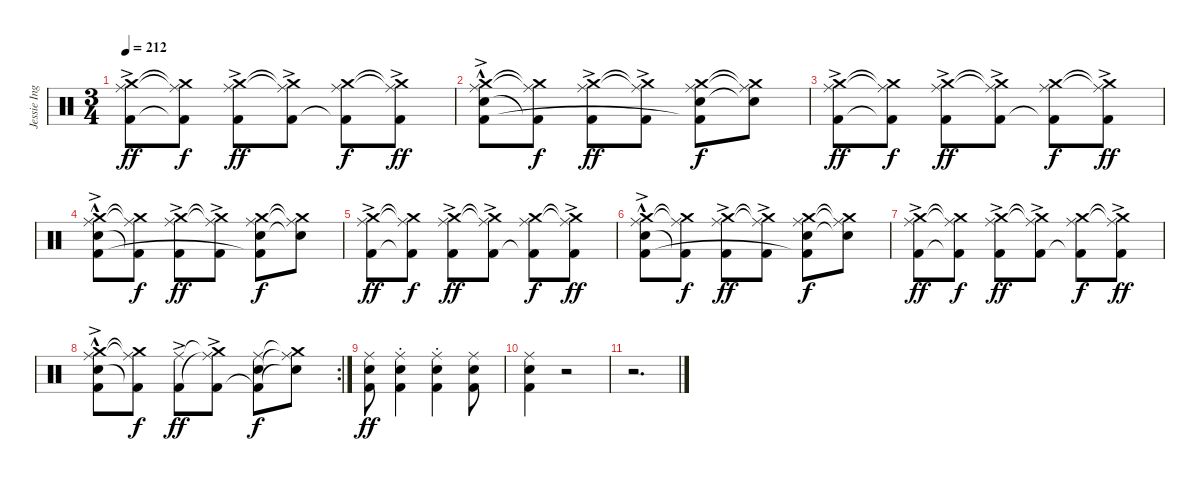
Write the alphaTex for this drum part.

\track ("Jessie Ingelevics" "Jessie Ing") {instrument percussion}
\staff {score}
\articulation defaults
\ts (3 4)
\tempo 212
\clef neutral
\ks c
("Crash medium (hit)" "Ride (middle)" "Kick (hit) 2"{ac}).8{dy ff} ("Crash medium (hit)"{t} "Ride (middle)"{t} "Kick (hit) 2"{t}).8{dy f} ("Crash medium (hit)" "Ride (middle)" "Kick (hit) 2"{ac}).8{dy ff} ("Crash medium (hit)"{t} "Ride (middle)"{t} "Kick (hit) 2"{ac}).8 ("Crash medium (hit)" "Ride (middle)" "Kick (hit) 2"{t}).8{dy f} ("Crash medium (hit)"{t} "Ride (middle)"{t} "Kick (hit) 2"{ac}).8{dy ff} |
("Crash medium (hit)" "Ride (middle)" "Electric Snare (hit)"{hac} "Kick (hit) 2"{ac}).8 ("Crash medium (hit)"{t} "Ride (middle)"{t} "Kick (hit) 2"{t}).8{dy f} ("Crash medium (hit)" "Ride (middle)" "Kick (hit) 2"{ac}).8{dy ff} ("Crash medium (hit)"{t} "Ride (middle)"{t} "Kick (hit) 2"{ac}).8 ("Crash medium (hit)" "Ride (middle)" "Electric Snare (hit)" "Kick (hit) 2"{t}).8{dy f} ("Crash medium (hit)"{t} "Ride (middle)"{t} "Electric Snare (hit)"{t}).8 |
("Crash medium (hit)" "Ride (middle)" "Kick (hit) 2"{ac}).8{dy ff} ("Crash medium (hit)"{t} "Ride (middle)"{t} "Kick (hit) 2"{t}).8{dy f} ("Crash medium (hit)" "Ride (middle)" "Kick (hit) 2"{ac}).8{dy ff} ("Crash medium (hit)"{t} "Ride (middle)"{t} "Kick (hit) 2"{ac}).8 ("Crash medium (hit)" "Ride (middle)" "Kick (hit) 2"{t}).8{dy f} ("Crash medium (hit)"{t} "Ride (middle)"{t} "Kick (hit) 2"{ac}).8{dy ff} |
("Crash medium (hit)" "Ride (middle)" "Electric Snare (hit)"{hac} "Kick (hit) 2"{ac}).8 ("Crash medium (hit)"{t} "Ride (middle)"{t} "Kick (hit) 2"{t}).8{dy f} ("Crash medium (hit)" "Ride (middle)" "Kick (hit) 2"{ac}).8{dy ff} ("Crash medium (hit)"{t} "Ride (middle)"{t} "Kick (hit) 2"{ac}).8 ("Crash medium (hit)" "Ride (middle)" "Electric Snare (hit)" "Kick (hit) 2"{t}).8{dy f} ("Crash medium (hit)"{t} "Ride (middle)"{t} "Electric Snare (hit)"{t}).8 |
("Crash medium (hit)" "Ride (middle)" "Kick (hit) 2"{ac}).8{dy ff} ("Crash medium (hit)"{t} "Ride (middle)"{t} "Kick (hit) 2"{t}).8{dy f} ("Crash medium (hit)" "Ride (middle)" "Kick (hit) 2"{ac}).8{dy ff} ("Crash medium (hit)"{t} "Ride (middle)"{t} "Kick (hit) 2"{ac}).8 ("Crash medium (hit)" "Ride (middle)" "Kick (hit) 2"{t}).8{dy f} ("Crash medium (hit)"{t} "Ride (middle)"{t} "Kick (hit) 2"{ac}).8{dy ff} |
("Crash medium (hit)" "Ride (middle)" "Electric Snare (hit)"{hac} "Kick (hit) 2"{ac}).8 ("Crash medium (hit)"{t} "Ride (middle)"{t} "Kick (hit) 2"{t}).8{dy f} ("Crash medium (hit)" "Ride (middle)" "Kick (hit) 2"{ac}).8{dy ff} ("Crash medium (hit)"{t} "Ride (middle)"{t} "Kick (hit) 2"{ac}).8 ("Crash medium (hit)" "Ride (middle)" "Electric Snare (hit)" "Kick (hit) 2"{t}).8{dy f} ("Crash medium (hit)"{t} "Ride (middle)"{t} "Electric Snare (hit)"{t}).8 |
("Crash medium (hit)" "Ride (middle)" "Kick (hit) 2"{ac}).8{dy ff} ("Crash medium (hit)"{t} "Ride (middle)"{t} "Kick (hit) 2"{t}).8{dy f} ("Crash medium (hit)" "Ride (middle)" "Kick (hit) 2"{ac}).8{dy ff} ("Crash medium (hit)"{t} "Ride (middle)"{t} "Kick (hit) 2"{ac}).8 ("Crash medium (hit)" "Ride (middle)" "Kick (hit) 2"{t}).8{dy f} ("Crash medium (hit)"{t} "Ride (middle)"{t} "Kick (hit) 2"{ac}).8{dy ff} |
\rc 2
("Crash medium (hit)" "Ride (middle)" "Electric Snare (hit)"{hac} "Kick (hit) 2"{ac}).8 ("Crash medium (hit)"{t} "Ride (middle)"{t} "Kick (hit) 2"{t}).8{dy f} ("Ride (middle)" "Kick (hit) 2"{ac}).8{dy ff} ("Crash medium (hit)"{t} "Ride (middle)"{t} "Kick (hit) 2"{ac}).8 ("Ride (middle)" "Electric Snare (hit)" "Kick (hit) 2"{t}).8{dy f} ("Crash medium (hit)"{t} "Ride (middle)"{t} "Electric Snare (hit)"{t}).8 |
("Ride (middle)" "Electric Snare (hit)" "Kick (hit) 2").8{dy ff} ("Ride (middle)" "Electric Snare (hit)"{st} "Kick (hit) 2").4 ("Ride (middle)" "Electric Snare (hit)"{st} "Kick (hit) 2").4 ("Ride (middle)" "Electric Snare (hit)" "Kick (hit) 2").8 |
("Ride (middle)" "Electric Snare (hit)" "Kick (hit) 2").4 r.2 |
r.2{d}
